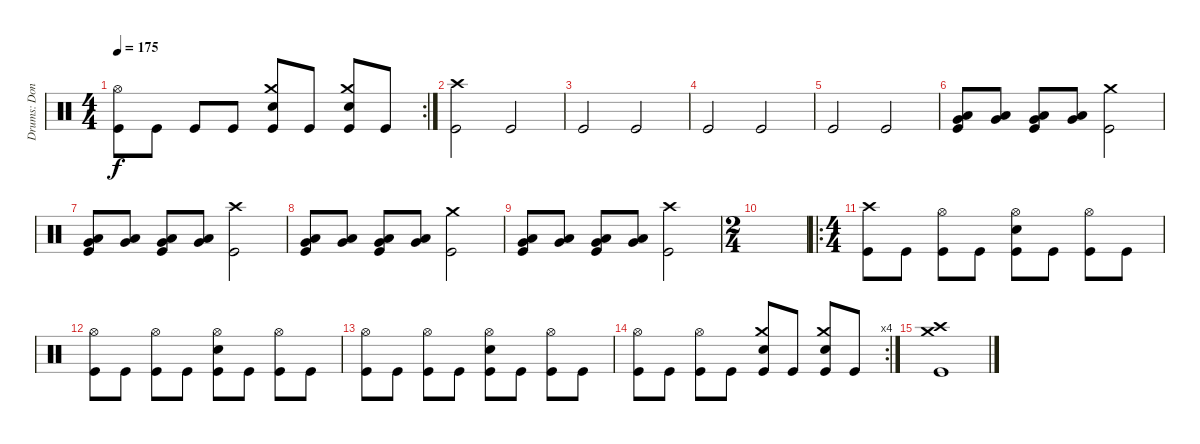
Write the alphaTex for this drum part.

\track ("Drums: Donald Tardy" "Drums: Don") {instrument percussion}
\staff {score}
\articulation defaults
\rc 2
\ts (4 4)
\tempo 175
\clef neutral
\ks c
("Hi-Hat (open)" "Kick (hit)").8{dy f} "Kick (hit)".8 "Kick (hit)".8 "Kick (hit)".8 ("Crash medium (hit)" "Snare (hit) 2" "Kick (hit)").8 "Kick (hit)".8 ("Crash medium (hit)" "Snare (hit) 2" "Kick (hit)").8 "Kick (hit)".8 |
("Crash high (hit)" "Kick (hit)").2 "Kick (hit)".2 |
"Kick (hit)".2 "Kick (hit)".2 |
"Kick (hit)".2 "Kick (hit)".2 |
"Kick (hit)".2 "Kick (hit)".2 |
("Very Low Tom (hit)" "Low Floor Tom (hit)" "Kick (hit)").8 ("Very Low Tom (hit)" "Low Floor Tom (hit)").8 ("Very Low Tom (hit)" "Low Floor Tom (hit)" "Kick (hit)").8 ("Very Low Tom (hit)" "Low Floor Tom (hit)").8 ("Crash medium (hit)" "Kick (hit)").2 |
("Very Low Tom (hit)" "Low Floor Tom (hit)" "Kick (hit)").8 ("Very Low Tom (hit)" "Low Floor Tom (hit)").8 ("Very Low Tom (hit)" "Low Floor Tom (hit)" "Kick (hit)").8 ("Very Low Tom (hit)" "Low Floor Tom (hit)").8 ("Crash high (hit)" "Kick (hit)").2 |
("Very Low Tom (hit)" "Low Floor Tom (hit)" "Kick (hit)").8 ("Very Low Tom (hit)" "Low Floor Tom (hit)").8 ("Very Low Tom (hit)" "Low Floor Tom (hit)" "Kick (hit)").8 ("Very Low Tom (hit)" "Low Floor Tom (hit)").8 ("Crash medium (hit)" "Kick (hit)").2 |
("Very Low Tom (hit)" "Low Floor Tom (hit)" "Kick (hit)").8 ("Very Low Tom (hit)" "Low Floor Tom (hit)").8 ("Very Low Tom (hit)" "Low Floor Tom (hit)" "Kick (hit)").8 ("Very Low Tom (hit)" "Low Floor Tom (hit)").8 ("Crash high (hit)" "Kick (hit)").2 |
\ts (2 4)
|
\ro
\ts (4 4)
("Crash high (hit)" "Kick (hit)").8 "Kick (hit)".8 ("Hi-Hat (open)" "Kick (hit)").8 "Kick (hit)".8 ("Hi-Hat (open)" "Snare (hit) 2" "Kick (hit)").8 "Kick (hit)".8 ("Hi-Hat (open)" "Kick (hit)").8 "Kick (hit)".8 |
("Hi-Hat (open)" "Kick (hit)").8 "Kick (hit)".8 ("Hi-Hat (open)" "Kick (hit)").8 "Kick (hit)".8 ("Hi-Hat (open)" "Snare (hit) 2" "Kick (hit)").8 "Kick (hit)".8 ("Hi-Hat (open)" "Kick (hit)").8 "Kick (hit)".8 |
("Hi-Hat (open)" "Kick (hit)").8 "Kick (hit)".8 ("Hi-Hat (open)" "Kick (hit)").8 "Kick (hit)".8 ("Hi-Hat (open)" "Snare (hit) 2" "Kick (hit)").8 "Kick (hit)".8 ("Hi-Hat (open)" "Kick (hit)").8 "Kick (hit)".8 |
\rc 4
("Hi-Hat (open)" "Kick (hit)").8 "Kick (hit)".8 ("Hi-Hat (open)" "Kick (hit)").8 "Kick (hit)".8 ("Crash medium (hit)" "Snare (hit) 2" "Kick (hit)").8 "Kick (hit)".8 ("Crash medium (hit)" "Snare (hit) 2" "Kick (hit)").8 "Kick (hit)".8 |
("Crash high (hit)" "Crash medium (hit)" "Kick (hit)").1
